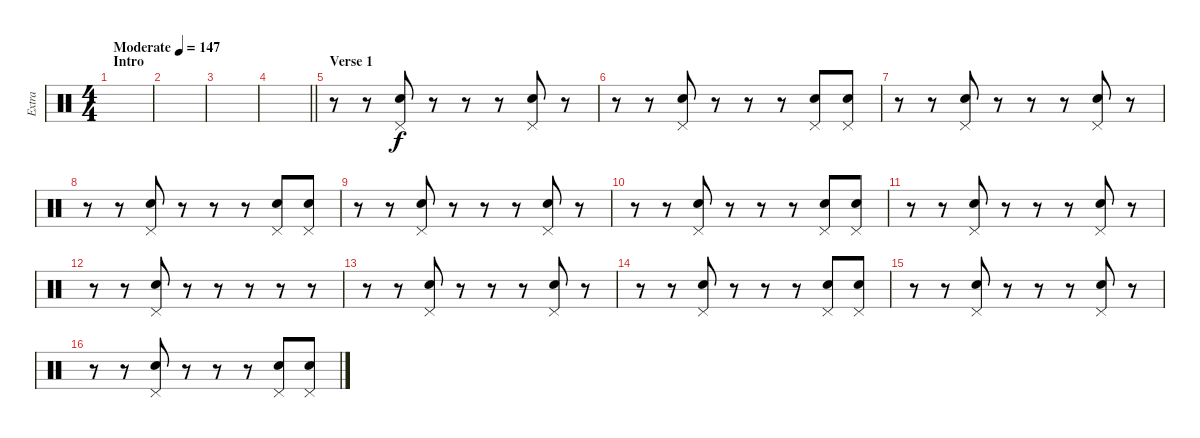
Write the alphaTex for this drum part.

\track ("Extra" "Extra") {instrument percussion}
\staff {score}
\articulation defaults
\ts (4 4)
\section ("" "Intro")
\tempo (147 "Moderate")
\clef neutral
\ks c
|
|
|
\barLineRight lightlight
|
\section ("" "Verse 1")
r.8 r.8 ("Hand Clap (hit)" "Pedal Hi-Hat (hit)").8 r.8 r.8 r.8 ("Hand Clap (hit)" "Pedal Hi-Hat (hit)").8 r.8 |
r.8 r.8 ("Hand Clap (hit)" "Pedal Hi-Hat (hit)").8 r.8 r.8 r.8 ("Hand Clap (hit)" "Pedal Hi-Hat (hit)").8 ("Hand Clap (hit)" "Pedal Hi-Hat (hit)").8 |
r.8 r.8 ("Hand Clap (hit)" "Pedal Hi-Hat (hit)").8 r.8 r.8 r.8 ("Hand Clap (hit)" "Pedal Hi-Hat (hit)").8 r.8 |
r.8 r.8 ("Hand Clap (hit)" "Pedal Hi-Hat (hit)").8 r.8 r.8 r.8 ("Hand Clap (hit)" "Pedal Hi-Hat (hit)").8 ("Hand Clap (hit)" "Pedal Hi-Hat (hit)").8 |
r.8 r.8 ("Hand Clap (hit)" "Pedal Hi-Hat (hit)").8 r.8 r.8 r.8 ("Hand Clap (hit)" "Pedal Hi-Hat (hit)").8 r.8 |
r.8 r.8 ("Hand Clap (hit)" "Pedal Hi-Hat (hit)").8 r.8 r.8 r.8 ("Hand Clap (hit)" "Pedal Hi-Hat (hit)").8 ("Hand Clap (hit)" "Pedal Hi-Hat (hit)").8 |
r.8 r.8 ("Hand Clap (hit)" "Pedal Hi-Hat (hit)").8 r.8 r.8 r.8 ("Hand Clap (hit)" "Pedal Hi-Hat (hit)").8 r.8 |
r.8 r.8 ("Hand Clap (hit)" "Pedal Hi-Hat (hit)").8 r.8 r.8 r.8 r.8 r.8 |
r.8 r.8 ("Hand Clap (hit)" "Pedal Hi-Hat (hit)").8 r.8 r.8 r.8 ("Hand Clap (hit)" "Pedal Hi-Hat (hit)").8 r.8 |
r.8 r.8 ("Hand Clap (hit)" "Pedal Hi-Hat (hit)").8 r.8 r.8 r.8 ("Hand Clap (hit)" "Pedal Hi-Hat (hit)").8 ("Hand Clap (hit)" "Pedal Hi-Hat (hit)").8 |
r.8 r.8 ("Hand Clap (hit)" "Pedal Hi-Hat (hit)").8 r.8 r.8 r.8 ("Hand Clap (hit)" "Pedal Hi-Hat (hit)").8 r.8 |
r.8 r.8 ("Hand Clap (hit)" "Pedal Hi-Hat (hit)").8 r.8 r.8 r.8 ("Hand Clap (hit)" "Pedal Hi-Hat (hit)").8 ("Hand Clap (hit)" "Pedal Hi-Hat (hit)").8
